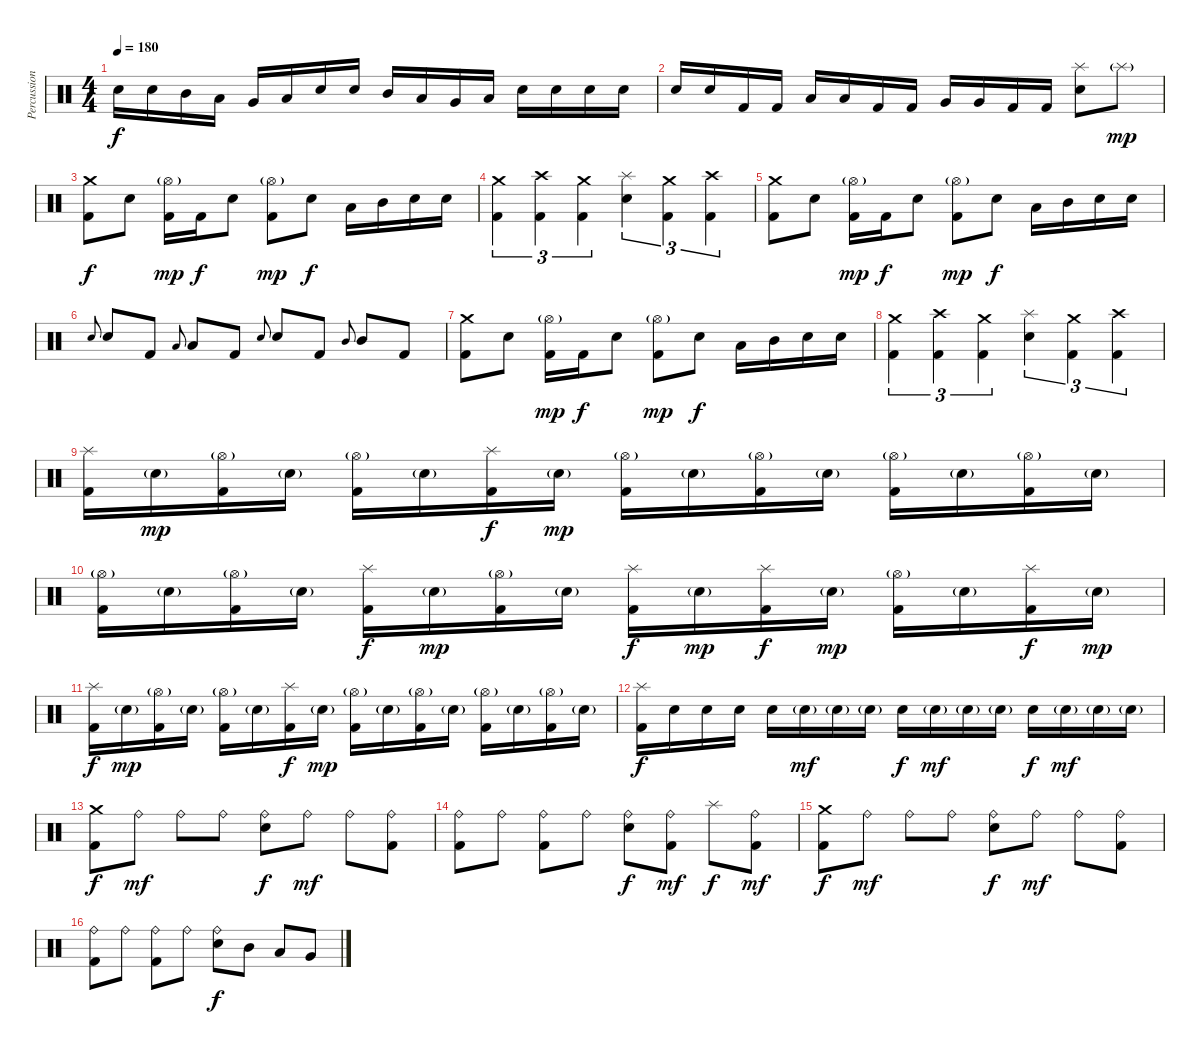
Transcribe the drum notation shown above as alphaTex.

\track ("Percussion" "Percussion") {instrument percussion}
\staff {score}
\articulation defaults
\ts (4 4)
\tempo 180
\clef neutral
\ks c "Electric Snare (hit)".16{dy f} "Electric Snare (hit)".16 "Mid Tom (hit)".16 "Low Tom (hit)".16 "Very Low Tom (hit)".16 "Low Floor Tom (hit)".16 "Electric Snare (hit)".16 "Electric Snare (hit)".16 "Mid Tom (hit)".16 "Low Tom (hit)".16 "Very Low Tom (hit)".16 "Low Floor Tom (hit)".16 "Electric Snare (hit)".16 "Electric Snare (hit)".16 "Electric Snare (hit)".16 "Electric Snare (hit)".16
|
"Electric Snare (hit)".16 "Electric Snare (hit)".16 "Kick (hit) 2".16 "Kick (hit) 2".16 "Low Tom (hit)".16 "Low Tom (hit)".16 "Kick (hit) 2".16 "Kick (hit) 2".16 "Very Low Tom (hit)".16 "Very Low Tom (hit)".16 "Kick (hit) 2".16 "Kick (hit) 2".16 ("Splash (hit)" "Electric Snare (hit)").8 "Splash (hit)"{g}.8{dy mp} |
("Crash medium (hit)" "Kick (hit) 2").8{dy f} "Electric Snare (hit)".8 ("Hi-Hat (open)"{g} "Kick (hit) 2").16{dy mp} "Kick (hit) 2".16{dy f} "Electric Snare (hit)".8 ("Hi-Hat (open)"{g} "Kick (hit) 2").8{dy mp} "Electric Snare (hit)".8{dy f} "Low Tom (hit)".16 "Mid Tom (hit)".16 "Electric Snare (hit)".16 "Electric Snare (hit)".16 |
("Crash medium (hit)" "Kick (hit) 2").4{tu (3 2)} ("Crash high (hit)" "Kick (hit) 2").4{tu (3 2)} ("Crash medium (hit)" "Kick (hit) 2").4{tu (3 2)} ("Splash (hit)" "Electric Snare (hit)").4{tu (3 2)} ("Crash medium (hit)" "Kick (hit) 2").4{tu (3 2)} ("Crash high (hit)" "Kick (hit) 2").4{tu (3 2)} |
("Crash medium (hit)" "Kick (hit) 2").8 "Electric Snare (hit)".8 ("Hi-Hat (open)"{g} "Kick (hit) 2").16{dy mp} "Kick (hit) 2".16{dy f} "Electric Snare (hit)".8 ("Hi-Hat (open)"{g} "Kick (hit) 2").8{dy mp} "Electric Snare (hit)".8{dy f} "Low Tom (hit)".16 "Mid Tom (hit)".16 "Electric Snare (hit)".16 "Electric Snare (hit)".16 |
"Electric Snare (hit)".8{gr onbeat} "Electric Snare (hit)".8 "Kick (hit) 2".8 "Low Tom (hit)".8{gr onbeat} "Low Tom (hit)".8 "Kick (hit) 2".8 "Electric Snare (hit)".8{gr onbeat} "Electric Snare (hit)".8 "Kick (hit) 2".8 "Mid Tom (hit)".8{gr onbeat} "Mid Tom (hit)".8 "Kick (hit) 2".8 |
("Crash medium (hit)" "Kick (hit) 2").8 "Electric Snare (hit)".8 ("Hi-Hat (open)"{g} "Kick (hit) 2").16{dy mp} "Kick (hit) 2".16{dy f} "Electric Snare (hit)".8 ("Hi-Hat (open)"{g} "Kick (hit) 2").8{dy mp} "Electric Snare (hit)".8{dy f} "Low Tom (hit)".16 "Mid Tom (hit)".16 "Electric Snare (hit)".16 "Electric Snare (hit)".16 |
("Crash medium (hit)" "Kick (hit) 2").4{tu (3 2)} ("Crash high (hit)" "Kick (hit) 2").4{tu (3 2)} ("Crash medium (hit)" "Kick (hit) 2").4{tu (3 2)} ("Splash (hit)" "Electric Snare (hit)").4{tu (3 2)} ("Crash medium (hit)" "Kick (hit) 2").4{tu (3 2)} ("Crash high (hit)" "Kick (hit) 2").4{tu (3 2)} |
("Splash (hit)" "Kick (hit) 2").16 "Electric Snare (hit)"{g}.16{dy mp} ("Hi-Hat (open)"{g} "Kick (hit) 2").16 "Electric Snare (hit)"{g}.16 ("Hi-Hat (open)"{g} "Kick (hit) 2").16 "Electric Snare (hit)"{g}.16 ("Splash (hit)" "Kick (hit) 2").16{dy f} "Electric Snare (hit)"{g}.16{dy mp} ("Hi-Hat (open)"{g} "Kick (hit) 2").16 "Electric Snare (hit)"{g}.16 ("Hi-Hat (open)"{g} "Kick (hit) 2").16 "Electric Snare (hit)"{g}.16 ("Hi-Hat (open)"{g} "Kick (hit) 2").16 "Electric Snare (hit)"{g}.16 ("Hi-Hat (open)"{g} "Kick (hit) 2").16 "Electric Snare (hit)"{g}.16 |
("Hi-Hat (open)"{g} "Kick (hit) 2").16 "Electric Snare (hit)"{g}.16 ("Hi-Hat (open)"{g} "Kick (hit) 2").16 "Electric Snare (hit)"{g}.16 ("Splash (hit)" "Kick (hit) 2").16{dy f} "Electric Snare (hit)"{g}.16{dy mp} ("Hi-Hat (open)"{g} "Kick (hit) 2").16 "Electric Snare (hit)"{g}.16 ("Splash (hit)" "Kick (hit) 2").16{dy f} "Electric Snare (hit)"{g}.16{dy mp} ("Splash (hit)" "Kick (hit) 2").16{dy f} "Electric Snare (hit)"{g}.16{dy mp} ("Hi-Hat (open)"{g} "Kick (hit) 2").16 "Electric Snare (hit)"{g}.16 ("Splash (hit)" "Kick (hit) 2").16{dy f} "Electric Snare (hit)"{g}.16{dy mp} |
("Splash (hit)" "Kick (hit) 2").16{dy f} "Electric Snare (hit)"{g}.16{dy mp} ("Hi-Hat (open)"{g} "Kick (hit) 2").16 "Electric Snare (hit)"{g}.16 ("Hi-Hat (open)"{g} "Kick (hit) 2").16 "Electric Snare (hit)"{g}.16 ("Splash (hit)" "Kick (hit) 2").16{dy f} "Electric Snare (hit)"{g}.16{dy mp} ("Hi-Hat (open)"{g} "Kick (hit) 2").16 "Electric Snare (hit)"{g}.16 ("Hi-Hat (open)"{g} "Kick (hit) 2").16 "Electric Snare (hit)"{g}.16 ("Hi-Hat (open)"{g} "Kick (hit) 2").16 "Electric Snare (hit)"{g}.16 ("Hi-Hat (open)"{g} "Kick (hit) 2").16 "Electric Snare (hit)"{g}.16 |
("Splash (hit)" "Kick (hit) 2").16{dy f} "Electric Snare (hit)".16 "Electric Snare (hit)".16 "Electric Snare (hit)".16 "Electric Snare (hit)".16 "Electric Snare (hit)"{g}.16{dy mf} "Electric Snare (hit)"{g}.16 "Electric Snare (hit)"{g}.16 "Electric Snare (hit)".16{dy f} "Electric Snare (hit)"{g}.16{dy mf} "Electric Snare (hit)"{g}.16 "Electric Snare (hit)"{g}.16 "Electric Snare (hit)".16{dy f} "Electric Snare (hit)"{g}.16{dy mf} "Electric Snare (hit)"{g}.16 "Electric Snare (hit)"{g}.16 |
("Crash medium (hit)" "Kick (hit) 2").8{dy f} "Ride (bell)".8{dy mf} "Ride (bell)".8 "Ride (bell)".8 ("Ride (bell)" "Electric Snare (hit)").8{dy f} "Ride (bell)".8{dy mf} "Ride (bell)".8 ("Ride (bell)" "Kick (hit) 2").8 |
("Ride (bell)" "Kick (hit) 2").8 "Ride (bell)".8 ("Ride (bell)" "Kick (hit) 2").8 "Ride (bell)".8 ("Ride (bell)" "Electric Snare (hit)").8{dy f} ("Ride (bell)" "Kick (hit) 2").8{dy mf} "Splash (hit)".8{dy f} ("Ride (bell)" "Kick (hit) 2").8{dy mf} |
("Crash medium (hit)" "Kick (hit) 2").8{dy f} "Ride (bell)".8{dy mf} "Ride (bell)".8 "Ride (bell)".8 ("Ride (bell)" "Electric Snare (hit)").8{dy f} "Ride (bell)".8{dy mf} "Ride (bell)".8 ("Ride (bell)" "Kick (hit) 2").8 |
("Ride (bell)" "Kick (hit) 2").8 "Ride (bell)".8 ("Ride (bell)" "Kick (hit) 2").8 "Ride (bell)".8 ("Ride (bell)" "Electric Snare (hit)").8{dy f} "Mid Tom (hit)".8 "Low Tom (hit)".8 "Very Low Tom (hit)".8
